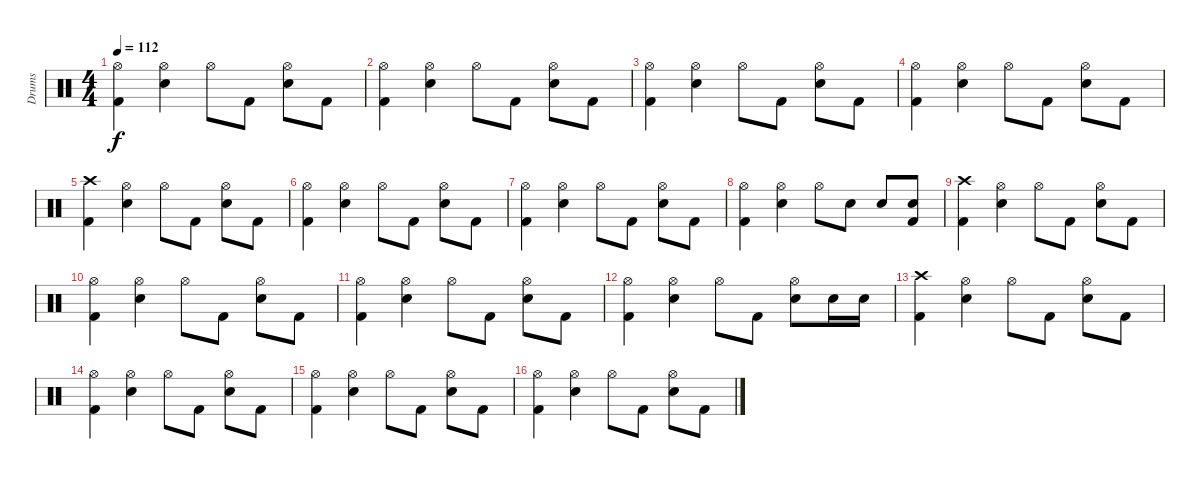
\track ("Drums" "Drums") {instrument percussion}
\staff {score}
\articulation defaults
\ts (4 4)
\tempo 112
\clef neutral
\ks c
("Hi-Hat (open)" "Kick (hit) 2").4{dy f} ("Hi-Hat (open)" "Snare (hit) 2").4 "Hi-Hat (open)".8 "Kick (hit) 2".8 ("Hi-Hat (open)" "Snare (hit) 2").8 "Kick (hit) 2".8 |
("Hi-Hat (open)" "Kick (hit) 2").4 ("Hi-Hat (open)" "Snare (hit) 2").4 "Hi-Hat (open)".8 "Kick (hit) 2".8 ("Hi-Hat (open)" "Snare (hit) 2").8 "Kick (hit) 2".8 |
("Hi-Hat (open)" "Kick (hit) 2").4 ("Hi-Hat (open)" "Snare (hit) 2").4 "Hi-Hat (open)".8 "Kick (hit) 2".8 ("Hi-Hat (open)" "Snare (hit) 2").8 "Kick (hit) 2".8 |
("Hi-Hat (open)" "Kick (hit) 2").4 ("Hi-Hat (open)" "Snare (hit) 2").4 "Hi-Hat (open)".8 "Kick (hit) 2".8 ("Hi-Hat (open)" "Snare (hit) 2").8 "Kick (hit) 2".8 |
("Crash high (hit)" "Kick (hit) 2").4 ("Hi-Hat (open)" "Snare (hit) 2").4 "Hi-Hat (open)".8 "Kick (hit) 2".8 ("Hi-Hat (open)" "Snare (hit) 2").8 "Kick (hit) 2".8 |
("Hi-Hat (open)" "Kick (hit) 2").4 ("Hi-Hat (open)" "Snare (hit) 2").4 "Hi-Hat (open)".8 "Kick (hit) 2".8 ("Hi-Hat (open)" "Snare (hit) 2").8 "Kick (hit) 2".8 |
("Hi-Hat (open)" "Kick (hit) 2").4 ("Hi-Hat (open)" "Snare (hit) 2").4 "Hi-Hat (open)".8 "Kick (hit) 2".8 ("Hi-Hat (open)" "Snare (hit) 2").8 "Kick (hit) 2".8 |
("Hi-Hat (open)" "Kick (hit) 2").4 ("Hi-Hat (open)" "Snare (hit) 2").4 "Hi-Hat (open)".8 "Snare (hit) 2".8 "Snare (hit) 2".8 ("Snare (hit) 2" "Kick (hit) 2").8 |
("Crash high (hit)" "Kick (hit) 2").4 ("Hi-Hat (open)" "Snare (hit) 2").4 "Hi-Hat (open)".8 "Kick (hit) 2".8 ("Hi-Hat (open)" "Snare (hit) 2").8 "Kick (hit) 2".8 |
("Hi-Hat (open)" "Kick (hit) 2").4 ("Hi-Hat (open)" "Snare (hit) 2").4 "Hi-Hat (open)".8 "Kick (hit) 2".8 ("Hi-Hat (open)" "Snare (hit) 2").8 "Kick (hit) 2".8 |
("Hi-Hat (open)" "Kick (hit) 2").4 ("Hi-Hat (open)" "Snare (hit) 2").4 "Hi-Hat (open)".8 "Kick (hit) 2".8 ("Hi-Hat (open)" "Snare (hit) 2").8 "Kick (hit) 2".8 |
("Hi-Hat (open)" "Kick (hit) 2").4 ("Hi-Hat (open)" "Snare (hit) 2").4 "Hi-Hat (open)".8 "Kick (hit) 2".8 ("Hi-Hat (open)" "Snare (hit) 2").8 "Snare (hit) 2".16 "Snare (hit) 2".16 |
("Crash high (hit)" "Kick (hit) 2").4 ("Hi-Hat (open)" "Snare (hit) 2").4 "Hi-Hat (open)".8 "Kick (hit) 2".8 ("Hi-Hat (open)" "Snare (hit) 2").8 "Kick (hit) 2".8 |
("Hi-Hat (open)" "Kick (hit) 2").4 ("Hi-Hat (open)" "Snare (hit) 2").4 "Hi-Hat (open)".8 "Kick (hit) 2".8 ("Hi-Hat (open)" "Snare (hit) 2").8 "Kick (hit) 2".8 |
("Hi-Hat (open)" "Kick (hit) 2").4 ("Hi-Hat (open)" "Snare (hit) 2").4 "Hi-Hat (open)".8 "Kick (hit) 2".8 ("Hi-Hat (open)" "Snare (hit) 2").8 "Kick (hit) 2".8 |
("Hi-Hat (open)" "Kick (hit) 2").4 ("Hi-Hat (open)" "Snare (hit) 2").4 "Hi-Hat (open)".8 "Kick (hit) 2".8 ("Hi-Hat (open)" "Snare (hit) 2").8 "Kick (hit) 2".8
